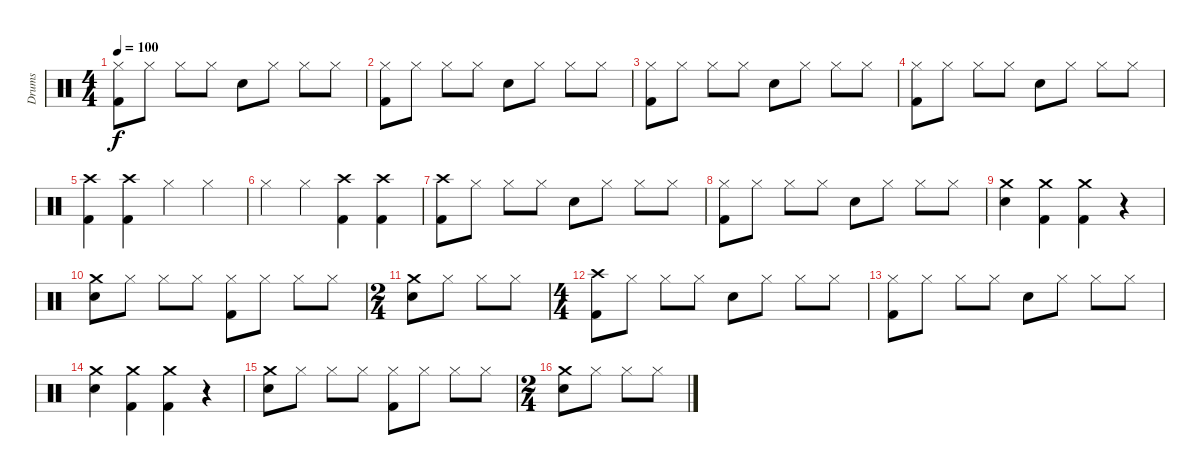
\track ("Drums" "Drums") {instrument percussion}
\staff {score}
\articulation defaults
\ts (4 4)
\tempo 100
\clef neutral
\ks c
("Hi-Hat (closed)" "Kick (hit) 2").8{dy f} "Hi-Hat (closed)".8 "Hi-Hat (closed)".8 "Hi-Hat (closed)".8 "Snare (hit) 2".8 "Hi-Hat (closed)".8 "Hi-Hat (closed)".8 "Hi-Hat (closed)".8 |
("Hi-Hat (closed)" "Kick (hit) 2").8 "Hi-Hat (closed)".8 "Hi-Hat (closed)".8 "Hi-Hat (closed)".8 "Snare (hit) 2".8 "Hi-Hat (closed)".8 "Hi-Hat (closed)".8 "Hi-Hat (closed)".8 |
("Hi-Hat (closed)" "Kick (hit) 2").8 "Hi-Hat (closed)".8 "Hi-Hat (closed)".8 "Hi-Hat (closed)".8 "Snare (hit) 2".8 "Hi-Hat (closed)".8 "Hi-Hat (closed)".8 "Hi-Hat (closed)".8 |
("Hi-Hat (closed)" "Kick (hit) 2").8 "Hi-Hat (closed)".8 "Hi-Hat (closed)".8 "Hi-Hat (closed)".8 "Snare (hit) 2".8 "Hi-Hat (closed)".8 "Hi-Hat (closed)".8 "Hi-Hat (closed)".8 |
("Crash high (hit)" "Kick (hit) 2").4 ("Crash high (hit)" "Kick (hit) 2").4 "Hi-Hat (closed)".4 "Hi-Hat (closed)".4 |
"Hi-Hat (closed)".4 "Hi-Hat (closed)".4 ("Crash high (hit)" "Kick (hit) 2").4 ("Crash high (hit)" "Kick (hit) 2").4 |
("Crash high (hit)" "Kick (hit) 2").8 "Hi-Hat (closed)".8 "Hi-Hat (closed)".8 "Hi-Hat (closed)".8 "Snare (hit) 2".8 "Hi-Hat (closed)".8 "Hi-Hat (closed)".8 "Hi-Hat (closed)".8 |
("Hi-Hat (closed)" "Kick (hit) 2").8 "Hi-Hat (closed)".8 "Hi-Hat (closed)".8 "Hi-Hat (closed)".8 "Snare (hit) 2".8 "Hi-Hat (closed)".8 "Hi-Hat (closed)".8 "Hi-Hat (closed)".8 |
("Snare (hit) 2" "Crash medium (hit)").4 ("Crash medium (hit)" "Kick (hit) 2").4 ("Crash medium (hit)" "Kick (hit) 2").4 r.4 |
("Snare (hit) 2" "Crash medium (hit)").8 "Hi-Hat (closed)".8 "Hi-Hat (closed)".8 "Hi-Hat (closed)".8 ("Hi-Hat (closed)" "Kick (hit) 2").8 "Hi-Hat (closed)".8 "Hi-Hat (closed)".8 "Hi-Hat (closed)".8 |
\ts (2 4)
("Snare (hit) 2" "Crash medium (hit)").8 "Hi-Hat (closed)".8 "Hi-Hat (closed)".8 "Hi-Hat (closed)".8 |
\ts (4 4)
("Crash high (hit)" "Kick (hit) 2").8 "Hi-Hat (closed)".8 "Hi-Hat (closed)".8 "Hi-Hat (closed)".8 "Snare (hit) 2".8 "Hi-Hat (closed)".8 "Hi-Hat (closed)".8 "Hi-Hat (closed)".8 |
("Hi-Hat (closed)" "Kick (hit) 2").8 "Hi-Hat (closed)".8 "Hi-Hat (closed)".8 "Hi-Hat (closed)".8 "Snare (hit) 2".8 "Hi-Hat (closed)".8 "Hi-Hat (closed)".8 "Hi-Hat (closed)".8 |
("Snare (hit) 2" "Crash medium (hit)").4 ("Crash medium (hit)" "Kick (hit) 2").4 ("Crash medium (hit)" "Kick (hit) 2").4 r.4 |
("Snare (hit) 2" "Crash medium (hit)").8 "Hi-Hat (closed)".8 "Hi-Hat (closed)".8 "Hi-Hat (closed)".8 ("Hi-Hat (closed)" "Kick (hit) 2").8 "Hi-Hat (closed)".8 "Hi-Hat (closed)".8 "Hi-Hat (closed)".8 |
\ts (2 4)
("Snare (hit) 2" "Crash medium (hit)").8 "Hi-Hat (closed)".8 "Hi-Hat (closed)".8 "Hi-Hat (closed)".8
